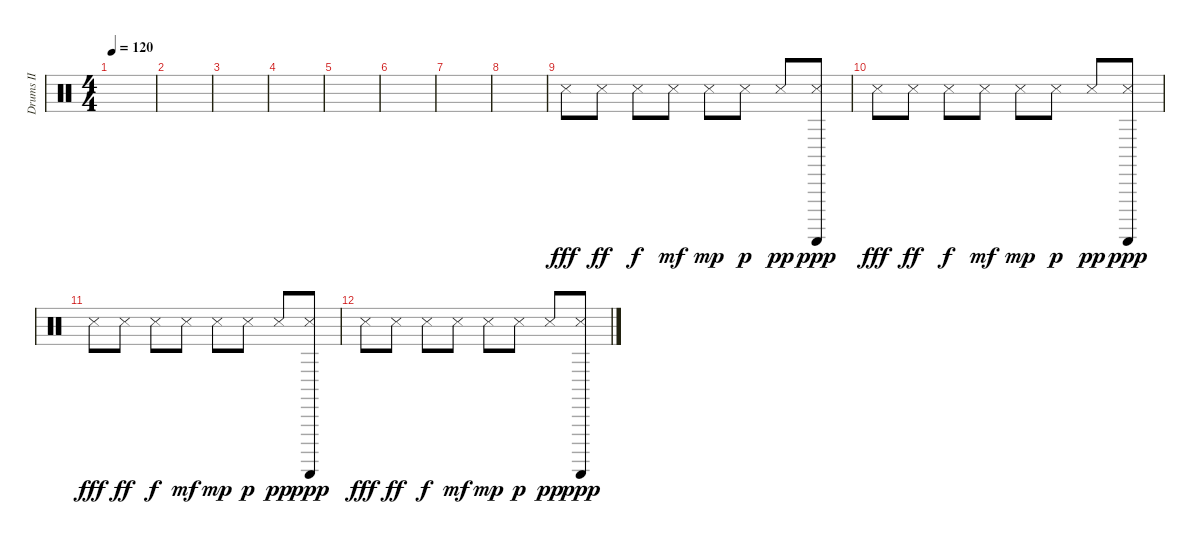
\track ("Drums II" "Drums II") {instrument percussion}
\staff {score}
\articulation defaults
\ts (4 4)
\tempo 120
\clef neutral
\ks c
|
|
|
|
|
|
|
|
"Snare (side stick) 3".8{dy fff} "Snare (side stick) 3".8{dy ff} "Snare (side stick) 3".8{dy f} "Snare (side stick) 3".8{dy mf} "Snare (side stick) 3".8{dy mp} "Snare (side stick) 3".8{dy p} "Snare (side stick) 3".8{dy pp} ("Guiro (scrap-return)" "Snare (side stick) 3").8{dy ppp} |
"Snare (side stick) 3".8{dy fff} "Snare (side stick) 3".8{dy ff} "Snare (side stick) 3".8{dy f} "Snare (side stick) 3".8{dy mf} "Snare (side stick) 3".8{dy mp} "Snare (side stick) 3".8{dy p} "Snare (side stick) 3".8{dy pp} ("Guiro (scrap-return)" "Snare (side stick) 3").8{dy ppp} |
"Snare (side stick) 3".8{dy fff} "Snare (side stick) 3".8{dy ff} "Snare (side stick) 3".8{dy f} "Snare (side stick) 3".8{dy mf} "Snare (side stick) 3".8{dy mp} "Snare (side stick) 3".8{dy p} "Snare (side stick) 3".8{dy pp} ("Guiro (scrap-return)" "Snare (side stick) 3").8{dy ppp} |
"Snare (side stick) 3".8{dy fff} "Snare (side stick) 3".8{dy ff} "Snare (side stick) 3".8{dy f} "Snare (side stick) 3".8{dy mf} "Snare (side stick) 3".8{dy mp} "Snare (side stick) 3".8{dy p} "Snare (side stick) 3".8{dy pp} ("Guiro (scrap-return)" "Snare (side stick) 3").8{dy ppp}
